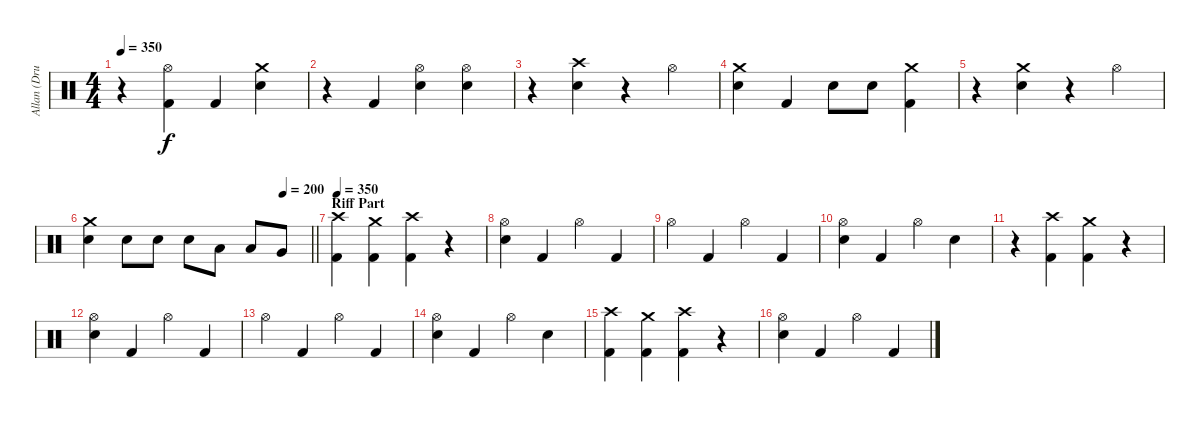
\track ("Allan (Drums)" "Allan (Dru") {solo instrument percussion}
\staff {score}
\articulation defaults
\ts (4 4)
\tempo 350
\clef neutral
\ks c
r.4{dy f} ("Hi-Hat (open)" "Kick (hit) 2").4 "Kick (hit) 2".4 ("Crash medium (hit)" "Snare (hit) 2").4 |
r.4 "Kick (hit) 2".4 ("Hi-Hat (open)" "Snare (hit) 2").4 ("Hi-Hat (open)" "Snare (hit) 2").4 |
r.4 ("Crash high (hit)" "Snare (hit) 2").4 r.4 "Hi-Hat (open)".4 |
("Crash medium (hit)" "Snare (hit) 2").4 "Kick (hit) 2".4 "Snare (hit) 2".8 "Snare (hit) 2".8 ("Crash medium (hit)" "Kick (hit) 2").4 |
r.4 ("Crash medium (hit)" "Snare (hit) 2").4 r.4 "Hi-Hat (open)".4 |
\tempo (200 0.875)
\barLineRight lightlight
("Crash medium (hit)" "Snare (hit) 2").4 "Snare (hit) 2".8 "Snare (hit) 2".8 "Snare (hit) 2".8 "Low Tom (hit)".8 "Low Tom (hit)".8 "Very Low Tom (hit)".8 |
\section ("" "Riff Part")
\tempo 350
("Crash high (hit)" "Kick (hit) 2").4 ("Crash medium (hit)" "Kick (hit) 2").4 ("Crash high (hit)" "Kick (hit) 2").4 r.4 |
("Hi-Hat (open)" "Snare (hit) 2").4 "Kick (hit) 2".4 "Hi-Hat (open)".4 "Kick (hit) 2".4 |
"Hi-Hat (open)".4 "Kick (hit) 2".4 "Hi-Hat (open)".4 "Kick (hit) 2".4 |
("Hi-Hat (open)" "Snare (hit) 2").4 "Kick (hit) 2".4 "Hi-Hat (open)".4 "Snare (hit) 2".4 |
r.4 ("Crash high (hit)" "Kick (hit) 2").4 ("Crash medium (hit)" "Kick (hit) 2").4 r.4 |
("Hi-Hat (open)" "Snare (hit) 2").4 "Kick (hit) 2".4 "Hi-Hat (open)".4 "Kick (hit) 2".4 |
"Hi-Hat (open)".4 "Kick (hit) 2".4 "Hi-Hat (open)".4 "Kick (hit) 2".4 |
("Hi-Hat (open)" "Snare (hit) 2").4 "Kick (hit) 2".4 "Hi-Hat (open)".4 "Snare (hit) 2".4 |
("Crash high (hit)" "Kick (hit) 2").4 ("Crash medium (hit)" "Kick (hit) 2").4 ("Crash high (hit)" "Kick (hit) 2").4 r.4 |
("Hi-Hat (open)" "Snare (hit) 2").4 "Kick (hit) 2".4 "Hi-Hat (open)".4 "Kick (hit) 2".4
